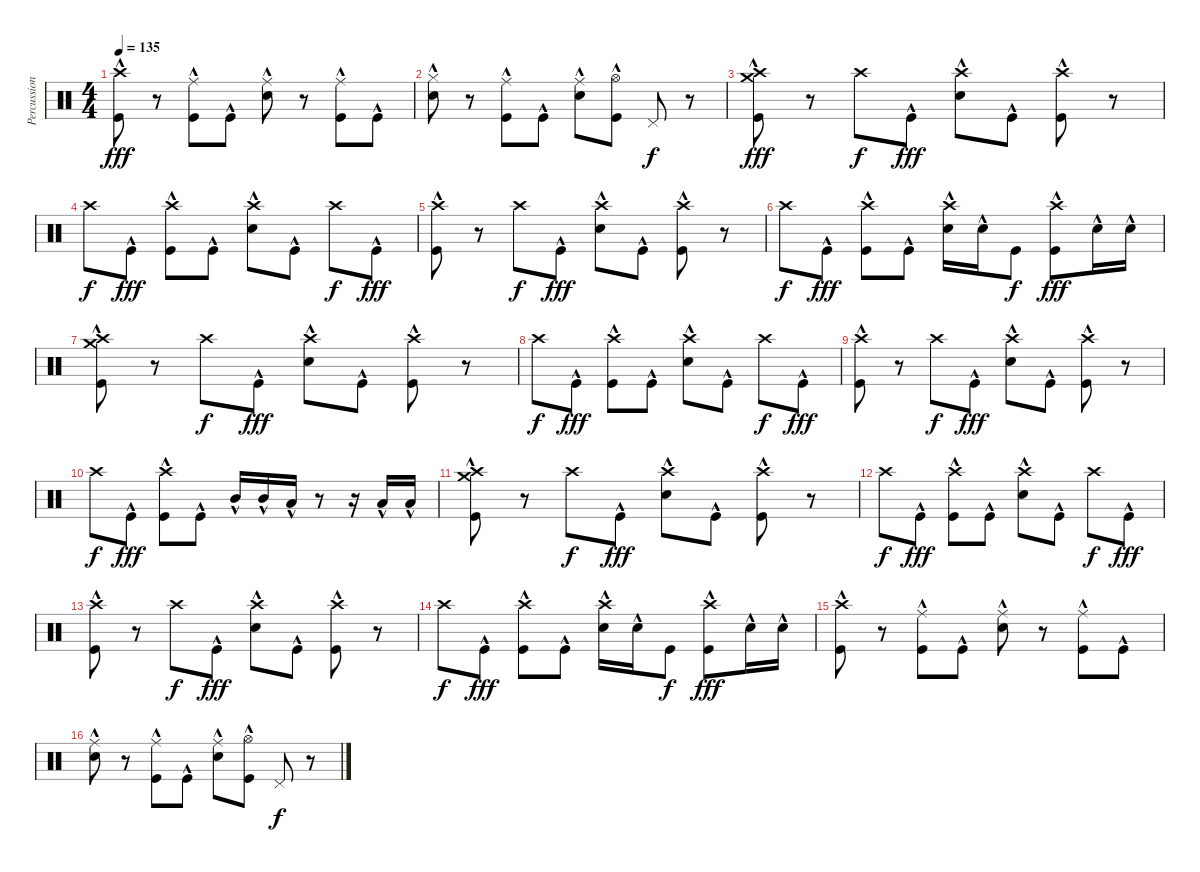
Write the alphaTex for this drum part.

\track ("Percussion" "Percussion") {instrument percussion}
\staff {score}
\articulation defaults
\ts (4 4)
\tempo 135
\clef neutral
\ks c
("Crash high (hit)" "Kick (hit)"{hac}).8{dy fff} r.8 ("Ride (middle)" "Kick (hit)"{hac}).8 "Kick (hit)"{hac}.8 ("Ride (middle)" "Snare (hit) 2"{hac}).8 r.8 ("Ride (middle)" "Kick (hit)"{hac}).8 "Kick (hit)"{hac}.8 |
("Hi-Hat (closed)" "Snare (hit) 2"{hac}).8 r.8 ("Ride (middle)" "Kick (hit)"{hac}).8 "Kick (hit)"{hac}.8 ("Ride (middle)" "Snare (hit) 2"{hac}).8 ("Hi-Hat (open)" "Kick (hit)"{hac}).8 "Pedal Hi-Hat (hit)".8{dy f} r.8 |
("Crash medium (hit)" "Crash high (hit)" "Kick (hit)"{hac}).8{dy fff} r.8 "Crash high (hit)".8{dy f} "Kick (hit)"{hac}.8{dy fff} ("Crash high (hit)" "Snare (hit) 2"{hac}).8 "Kick (hit)"{hac}.8 ("Crash high (hit)" "Kick (hit)"{hac}).8 r.8 |
"Crash high (hit)".8{dy f} "Kick (hit)"{hac}.8{dy fff} ("Crash high (hit)" "Kick (hit)"{hac}).8 "Kick (hit)"{hac}.8 ("Crash high (hit)" "Snare (hit) 2"{hac}).8 "Kick (hit)"{hac}.8 "Crash high (hit)".8{dy f} "Kick (hit)"{hac}.8{dy fff} |
("Crash high (hit)" "Kick (hit)"{hac}).8 r.8 "Crash high (hit)".8{dy f} "Kick (hit)"{hac}.8{dy fff} ("Crash high (hit)" "Snare (hit) 2"{hac}).8 "Kick (hit)"{hac}.8 ("Crash high (hit)" "Kick (hit)"{hac}).8 r.8 |
"Crash high (hit)".8{dy f} "Kick (hit)"{hac}.8{dy fff} ("Crash high (hit)" "Kick (hit)"{hac}).8 "Kick (hit)"{hac}.8 ("Crash high (hit)" "Snare (hit) 2"{hac}).16 "Snare (hit) 2"{hac}.16 "Kick (hit)".8{dy f} ("Crash high (hit)" "Kick (hit)"{hac}).8{dy fff} "Snare (hit) 2"{hac}.16 "Snare (hit) 2"{hac}.16 |
("Crash medium (hit)" "Crash high (hit)" "Kick (hit)"{hac}).8 r.8 "Crash high (hit)".8{dy f} "Kick (hit)"{hac}.8{dy fff} ("Crash high (hit)" "Snare (hit) 2"{hac}).8 "Kick (hit)"{hac}.8 ("Crash high (hit)" "Kick (hit)"{hac}).8 r.8 |
"Crash high (hit)".8{dy f} "Kick (hit)"{hac}.8{dy fff} ("Crash high (hit)" "Kick (hit)"{hac}).8 "Kick (hit)"{hac}.8 ("Crash high (hit)" "Snare (hit) 2"{hac}).8 "Kick (hit)"{hac}.8 "Crash high (hit)".8{dy f} "Kick (hit)"{hac}.8{dy fff} |
("Crash high (hit)" "Kick (hit)"{hac}).8 r.8 "Crash high (hit)".8{dy f} "Kick (hit)"{hac}.8{dy fff} ("Crash high (hit)" "Snare (hit) 2"{hac}).8 "Kick (hit)"{hac}.8 ("Crash high (hit)" "Kick (hit)"{hac}).8 r.8 |
"Crash high (hit)".8{dy f} "Kick (hit)"{hac}.8{dy fff} ("Crash high (hit)" "Kick (hit)"{hac}).8 "Kick (hit)"{hac}.8 "Mid Tom (hit)"{hac}.16 "Mid Tom (hit)"{hac}.16 "Low Tom (hit)"{hac}.16 r.8 r.16 "Low Tom (hit)"{hac}.16 "Low Tom (hit)"{hac}.16 |
("Crash medium (hit)" "Crash high (hit)" "Kick (hit)"{hac}).8 r.8 "Crash high (hit)".8{dy f} "Kick (hit)"{hac}.8{dy fff} ("Crash high (hit)" "Snare (hit) 2"{hac}).8 "Kick (hit)"{hac}.8 ("Crash high (hit)" "Kick (hit)"{hac}).8 r.8 |
"Crash high (hit)".8{dy f} "Kick (hit)"{hac}.8{dy fff} ("Crash high (hit)" "Kick (hit)"{hac}).8 "Kick (hit)"{hac}.8 ("Crash high (hit)" "Snare (hit) 2"{hac}).8 "Kick (hit)"{hac}.8 "Crash high (hit)".8{dy f} "Kick (hit)"{hac}.8{dy fff} |
("Crash high (hit)" "Kick (hit)"{hac}).8 r.8 "Crash high (hit)".8{dy f} "Kick (hit)"{hac}.8{dy fff} ("Crash high (hit)" "Snare (hit) 2"{hac}).8 "Kick (hit)"{hac}.8 ("Crash high (hit)" "Kick (hit)"{hac}).8 r.8 |
"Crash high (hit)".8{dy f} "Kick (hit)"{hac}.8{dy fff} ("Crash high (hit)" "Kick (hit)"{hac}).8 "Kick (hit)"{hac}.8 ("Crash high (hit)" "Snare (hit) 2"{hac}).16 "Snare (hit) 2"{hac}.16 "Kick (hit)".8{dy f} ("Crash high (hit)" "Kick (hit)"{hac}).8{dy fff} "Snare (hit) 2"{hac}.16 "Snare (hit) 2"{hac}.16 |
("Crash high (hit)" "Kick (hit)"{hac}).8 r.8 ("Ride (middle)" "Kick (hit)"{hac}).8 "Kick (hit)"{hac}.8 ("Ride (middle)" "Snare (hit) 2"{hac}).8 r.8 ("Ride (middle)" "Kick (hit)"{hac}).8 "Kick (hit)"{hac}.8 |
("Ride (middle)" "Snare (hit) 2"{hac}).8 r.8 ("Ride (middle)" "Kick (hit)"{hac}).8 "Kick (hit)"{hac}.8 ("Ride (middle)" "Snare (hit) 2"{hac}).8 ("Hi-Hat (open)" "Kick (hit)"{hac}).8 "Pedal Hi-Hat (hit)".8{dy f} r.8
